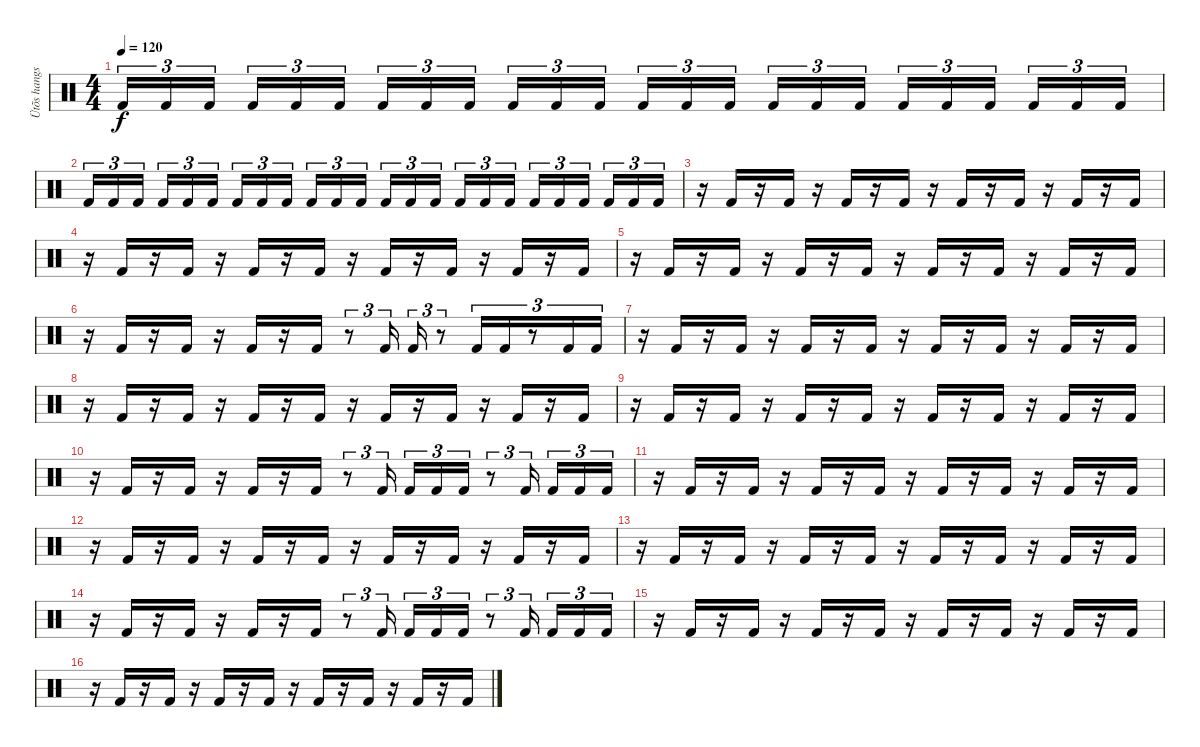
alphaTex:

\track ("Ütõs hangszer" "Ütõs hangs") {instrument percussion}
\staff {score}
\articulation defaults
\ts (4 4)
\tempo 120
\clef neutral
\ks c "Kick (hit) 2".16{tu (3 2) dy f} "Kick (hit) 2".16{tu (3 2)} "Kick (hit) 2".16{tu (3 2)} "Kick (hit) 2".16{tu (3 2)} "Kick (hit) 2".16{tu (3 2)} "Kick (hit) 2".16{tu (3 2)} "Kick (hit) 2".16{tu (3 2)} "Kick (hit) 2".16{tu (3 2)} "Kick (hit) 2".16{tu (3 2)} "Kick (hit) 2".16{tu (3 2)} "Kick (hit) 2".16{tu (3 2)} "Kick (hit) 2".16{tu (3 2)} "Kick (hit) 2".16{tu (3 2)} "Kick (hit) 2".16{tu (3 2)} "Kick (hit) 2".16{tu (3 2)} "Kick (hit) 2".16{tu (3 2)} "Kick (hit) 2".16{tu (3 2)} "Kick (hit) 2".16{tu (3 2)} "Kick (hit) 2".16{tu (3 2)} "Kick (hit) 2".16{tu (3 2)} "Kick (hit) 2".16{tu (3 2)} "Kick (hit) 2".16{tu (3 2)} "Kick (hit) 2".16{tu (3 2)} "Kick (hit) 2".16{tu (3 2)}
|
"Kick (hit) 2".16{tu (3 2)} "Kick (hit) 2".16{tu (3 2)} "Kick (hit) 2".16{tu (3 2)} "Kick (hit) 2".16{tu (3 2)} "Kick (hit) 2".16{tu (3 2)} "Kick (hit) 2".16{tu (3 2)} "Kick (hit) 2".16{tu (3 2)} "Kick (hit) 2".16{tu (3 2)} "Kick (hit) 2".16{tu (3 2)} "Kick (hit) 2".16{tu (3 2)} "Kick (hit) 2".16{tu (3 2)} "Kick (hit) 2".16{tu (3 2)} "Kick (hit) 2".16{tu (3 2)} "Kick (hit) 2".16{tu (3 2)} "Kick (hit) 2".16{tu (3 2)} "Kick (hit) 2".16{tu (3 2)} "Kick (hit) 2".16{tu (3 2)} "Kick (hit) 2".16{tu (3 2)} "Kick (hit) 2".16{tu (3 2)} "Kick (hit) 2".16{tu (3 2)} "Kick (hit) 2".16{tu (3 2)} "Kick (hit) 2".16{tu (3 2)} "Kick (hit) 2".16{tu (3 2)} "Kick (hit) 2".16{tu (3 2)} |
r.16 "Kick (hit) 2".16 r.16 "Kick (hit) 2".16 r.16 "Kick (hit) 2".16 r.16 "Kick (hit) 2".16 r.16 "Kick (hit) 2".16 r.16 "Kick (hit) 2".16 r.16 "Kick (hit) 2".16 r.16 "Kick (hit) 2".16 |
r.16 "Kick (hit) 2".16 r.16 "Kick (hit) 2".16 r.16 "Kick (hit) 2".16 r.16 "Kick (hit) 2".16 r.16 "Kick (hit) 2".16 r.16 "Kick (hit) 2".16 r.16 "Kick (hit) 2".16 r.16 "Kick (hit) 2".16 |
r.16 "Kick (hit) 2".16 r.16 "Kick (hit) 2".16 r.16 "Kick (hit) 2".16 r.16 "Kick (hit) 2".16 r.16 "Kick (hit) 2".16 r.16 "Kick (hit) 2".16 r.16 "Kick (hit) 2".16 r.16 "Kick (hit) 2".16 |
r.16 "Kick (hit) 2".16 r.16 "Kick (hit) 2".16 r.16 "Kick (hit) 2".16 r.16 "Kick (hit) 2".16 r.8{tu (3 2)} "Kick (hit) 2".16{tu (3 2)} "Kick (hit) 2".16{tu (3 2)} r.8{tu (3 2)} "Kick (hit) 2".16{tu (3 2)} "Kick (hit) 2".16{tu (3 2)} r.8{tu (3 2)} "Kick (hit) 2".16{tu (3 2)} "Kick (hit) 2".16{tu (3 2)} |
r.16 "Kick (hit) 2".16 r.16 "Kick (hit) 2".16 r.16 "Kick (hit) 2".16 r.16 "Kick (hit) 2".16 r.16 "Kick (hit) 2".16 r.16 "Kick (hit) 2".16 r.16 "Kick (hit) 2".16 r.16 "Kick (hit) 2".16 |
r.16 "Kick (hit) 2".16 r.16 "Kick (hit) 2".16 r.16 "Kick (hit) 2".16 r.16 "Kick (hit) 2".16 r.16 "Kick (hit) 2".16 r.16 "Kick (hit) 2".16 r.16 "Kick (hit) 2".16 r.16 "Kick (hit) 2".16 |
r.16 "Kick (hit) 2".16 r.16 "Kick (hit) 2".16 r.16 "Kick (hit) 2".16 r.16 "Kick (hit) 2".16 r.16 "Kick (hit) 2".16 r.16 "Kick (hit) 2".16 r.16 "Kick (hit) 2".16 r.16 "Kick (hit) 2".16 |
r.16 "Kick (hit) 2".16 r.16 "Kick (hit) 2".16 r.16 "Kick (hit) 2".16 r.16 "Kick (hit) 2".16 r.8{tu (3 2)} "Kick (hit) 2".16{tu (3 2)} "Kick (hit) 2".16{tu (3 2)} "Kick (hit) 2".16{tu (3 2)} "Kick (hit) 2".16{tu (3 2)} r.8{tu (3 2)} "Kick (hit) 2".16{tu (3 2)} "Kick (hit) 2".16{tu (3 2)} "Kick (hit) 2".16{tu (3 2)} "Kick (hit) 2".16{tu (3 2)} |
r.16 "Kick (hit) 2".16 r.16 "Kick (hit) 2".16 r.16 "Kick (hit) 2".16 r.16 "Kick (hit) 2".16 r.16 "Kick (hit) 2".16 r.16 "Kick (hit) 2".16 r.16 "Kick (hit) 2".16 r.16 "Kick (hit) 2".16 |
r.16 "Kick (hit) 2".16 r.16 "Kick (hit) 2".16 r.16 "Kick (hit) 2".16 r.16 "Kick (hit) 2".16 r.16 "Kick (hit) 2".16 r.16 "Kick (hit) 2".16 r.16 "Kick (hit) 2".16 r.16 "Kick (hit) 2".16 |
r.16 "Kick (hit) 2".16 r.16 "Kick (hit) 2".16 r.16 "Kick (hit) 2".16 r.16 "Kick (hit) 2".16 r.16 "Kick (hit) 2".16 r.16 "Kick (hit) 2".16 r.16 "Kick (hit) 2".16 r.16 "Kick (hit) 2".16 |
r.16 "Kick (hit) 2".16 r.16 "Kick (hit) 2".16 r.16 "Kick (hit) 2".16 r.16 "Kick (hit) 2".16 r.8{tu (3 2)} "Kick (hit) 2".16{tu (3 2)} "Kick (hit) 2".16{tu (3 2)} "Kick (hit) 2".16{tu (3 2)} "Kick (hit) 2".16{tu (3 2)} r.8{tu (3 2)} "Kick (hit) 2".16{tu (3 2)} "Kick (hit) 2".16{tu (3 2)} "Kick (hit) 2".16{tu (3 2)} "Kick (hit) 2".16{tu (3 2)} |
r.16 "Kick (hit) 2".16 r.16 "Kick (hit) 2".16 r.16 "Kick (hit) 2".16 r.16 "Kick (hit) 2".16 r.16 "Kick (hit) 2".16 r.16 "Kick (hit) 2".16 r.16 "Kick (hit) 2".16 r.16 "Kick (hit) 2".16 |
r.16 "Kick (hit) 2".16 r.16 "Kick (hit) 2".16 r.16 "Kick (hit) 2".16 r.16 "Kick (hit) 2".16 r.16 "Kick (hit) 2".16 r.16 "Kick (hit) 2".16 r.16 "Kick (hit) 2".16 r.16 "Kick (hit) 2".16
